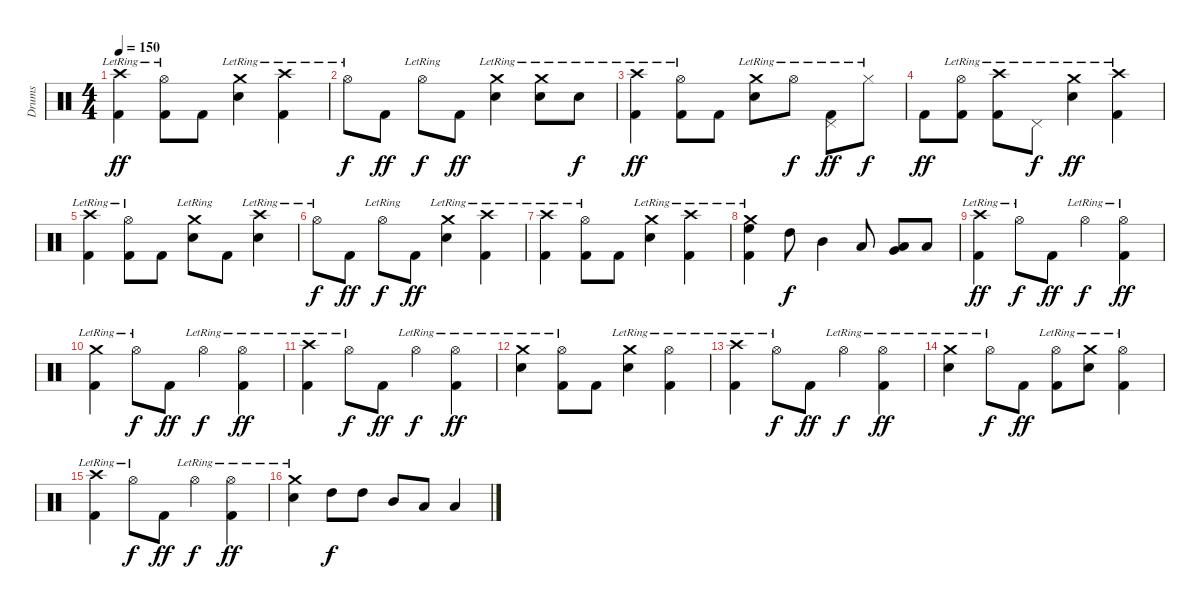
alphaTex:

\track ("Drums" "Drums") {instrument percussion}
\staff {score}
\articulation defaults
\ts (4 4)
\tempo 150
\clef neutral
\ks c
("Crash high (hit)"{lr} "Kick (hit) 2").4{dy ff} ("Hi-Hat (open)"{lr} "Kick (hit) 2").8 "Kick (hit) 2".8 ("Crash medium (hit)"{lr} "Snare (hit) 2").4 ("Crash high (hit)"{lr} "Kick (hit) 2").4 |
"Hi-Hat (open)"{lr}.8{dy f} "Kick (hit) 2".8{dy ff} "Hi-Hat (open)"{lr}.8{dy f} "Kick (hit) 2".8{dy ff} ("Crash medium (hit)"{lr} "Snare (hit) 2").4 ("Crash medium (hit)"{lr} "Snare (hit) 2").8 "Snare (hit) 2"{lr}.8{dy f} |
("Crash high (hit)"{lr} "Kick (hit) 2").4{dy ff} ("Hi-Hat (open)"{lr} "Kick (hit) 2").8 "Kick (hit) 2".8 ("Crash medium (hit)"{lr} "Snare (hit) 2").8 "Hi-Hat (open)"{lr}.8{dy f} ("Pedal Hi-Hat (hit)"{lr} "Kick (hit) 2").8{dy ff} "Hi-Hat (closed)"{lr}.8{dy f} |
"Kick (hit) 2".8{dy ff} ("Hi-Hat (open)"{lr} "Kick (hit) 2").8 ("Crash high (hit)"{lr} "Kick (hit) 2").8 "Pedal Hi-Hat (hit)"{lr}.8{dy f} ("Crash medium (hit)"{lr} "Snare (hit) 2").4{dy ff} ("Crash high (hit)"{lr} "Kick (hit) 2").4 |
("Crash high (hit)"{lr} "Kick (hit) 2").4 ("Hi-Hat (open)"{lr} "Kick (hit) 2").8 "Kick (hit) 2".8 ("Crash medium (hit)"{lr} "Snare (hit) 2").8 "Kick (hit) 2".8 ("Crash high (hit)"{lr} "Snare (hit) 2").4 |
"Hi-Hat (open)"{lr}.8{dy f} "Kick (hit) 2".8{dy ff} "Hi-Hat (open)"{lr}.8{dy f} "Kick (hit) 2".8{dy ff} ("Crash medium (hit)"{lr} "Snare (hit) 2").4 ("Crash high (hit)"{lr} "Kick (hit) 2").4 |
("Crash high (hit)"{lr} "Kick (hit) 2").4 ("Hi-Hat (open)"{lr} "Kick (hit) 2").8 "Kick (hit) 2".8 ("Crash medium (hit)"{lr} "Snare (hit) 2").4 ("Crash high (hit)"{lr} "Kick (hit) 2").4 |
("Crash medium (hit)"{lr} "High Floor Tom (hit)" "Kick (hit) 2").4 "High Tom (hit)".8{dy f} "Mid Tom (hit)".4 "Low Tom (hit)".8 ("Low Floor Tom (hit)" "Very Low Tom (hit)").8 "Low Floor Tom (hit)".8 |
("Crash high (hit)"{lr} "Kick (hit) 2").4{dy ff} "Hi-Hat (open)"{lr}.8{dy f} "Kick (hit) 2".8{dy ff} "Hi-Hat (open)"{lr}.4{dy f} ("Hi-Hat (open)"{lr} "Kick (hit) 2").4{dy ff} |
("Crash medium (hit)"{lr} "Kick (hit) 2").4 "Hi-Hat (open)"{lr}.8{dy f} "Kick (hit) 2".8{dy ff} "Hi-Hat (open)"{lr}.4{dy f} ("Hi-Hat (open)"{lr} "Kick (hit) 2").4{dy ff} |
("Crash high (hit)"{lr} "Kick (hit) 2").4 "Hi-Hat (open)"{lr}.8{dy f} "Kick (hit) 2".8{dy ff} "Hi-Hat (open)"{lr}.4{dy f} ("Hi-Hat (open)"{lr} "Kick (hit) 2").4{dy ff} |
("Crash medium (hit)"{lr} "Snare (hit) 2").4 ("Hi-Hat (open)"{lr} "Kick (hit) 2").8 "Kick (hit) 2".8 ("Crash medium (hit)"{lr} "Snare (hit) 2").4 ("Hi-Hat (open)"{lr} "Kick (hit) 2").4 |
("Crash high (hit)"{lr} "Kick (hit) 2").4 "Hi-Hat (open)"{lr}.8{dy f} "Kick (hit) 2".8{dy ff} "Hi-Hat (open)"{lr}.4{dy f} ("Hi-Hat (open)"{lr} "Kick (hit) 2").4{dy ff} |
("Crash medium (hit)"{lr} "Snare (hit) 2").4 "Hi-Hat (open)"{lr}.8{dy f} "Kick (hit) 2".8{dy ff} ("Hi-Hat (open)"{lr} "Kick (hit) 2").8 ("Crash medium (hit)"{lr} "Snare (hit) 2").8 ("Hi-Hat (open)"{lr} "Kick (hit) 2").4 |
("Crash high (hit)"{lr} "Kick (hit) 2").4 "Hi-Hat (open)"{lr}.8{dy f} "Kick (hit) 2".8{dy ff} "Hi-Hat (open)"{lr}.4{dy f} ("Hi-Hat (open)"{lr} "Kick (hit) 2").4{dy ff} |
("Crash medium (hit)"{lr} "Snare (hit) 2").4 "High Tom (hit)".8{dy f} "High Tom (hit)".8 "Mid Tom (hit)".8 "Low Tom (hit)".8 "Low Floor Tom (hit)".4
